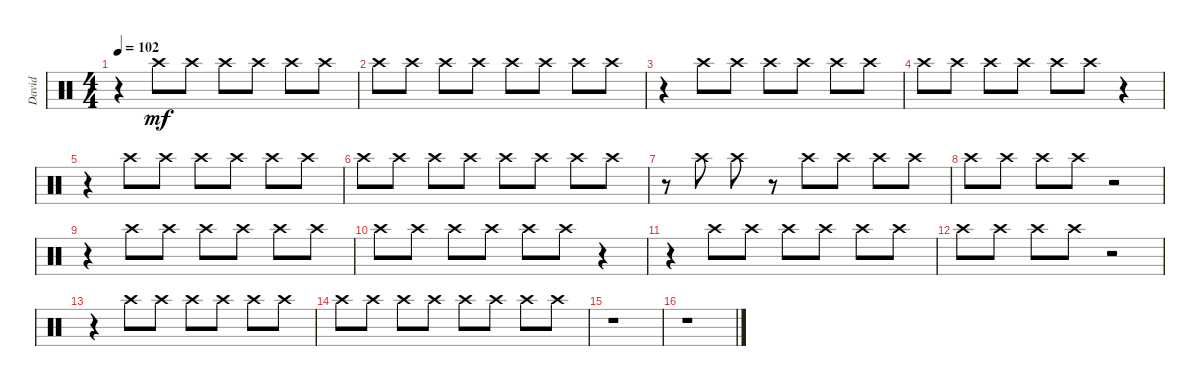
\track ("David" "David") {instrument percussion}
\staff {score}
\articulation defaults
\ts (4 4)
\tempo 102
\clef neutral
\ks c
r.4{dy f} "Crash high (hit)".8{dy mf} "Crash high (hit)".8 "Crash high (hit)".8 "Crash high (hit)".8 "Crash high (hit)".8 "Crash high (hit)".8 |
"Crash high (hit)".8 "Crash high (hit)".8 "Crash high (hit)".8 "Crash high (hit)".8 "Crash high (hit)".8 "Crash high (hit)".8 "Crash high (hit)".8 "Crash high (hit)".8 |
r.4 "Crash high (hit)".8 "Crash high (hit)".8 "Crash high (hit)".8 "Crash high (hit)".8 "Crash high (hit)".8 "Crash high (hit)".8 |
"Crash high (hit)".8 "Crash high (hit)".8 "Crash high (hit)".8 "Crash high (hit)".8 "Crash high (hit)".8 "Crash high (hit)".8 r.4 |
r.4 "Crash high (hit)".8 "Crash high (hit)".8 "Crash high (hit)".8 "Crash high (hit)".8 "Crash high (hit)".8 "Crash high (hit)".8 |
"Crash high (hit)".8 "Crash high (hit)".8 "Crash high (hit)".8 "Crash high (hit)".8 "Crash high (hit)".8 "Crash high (hit)".8 "Crash high (hit)".8 "Crash high (hit)".8 |
r.8 "Crash high (hit)".8 "Crash high (hit)".8 r.8 "Crash high (hit)".8 "Crash high (hit)".8 "Crash high (hit)".8 "Crash high (hit)".8 |
"Crash high (hit)".8 "Crash high (hit)".8 "Crash high (hit)".8 "Crash high (hit)".8 r.2 |
r.4 "Crash high (hit)".8 "Crash high (hit)".8 "Crash high (hit)".8 "Crash high (hit)".8 "Crash high (hit)".8 "Crash high (hit)".8 |
"Crash high (hit)".8 "Crash high (hit)".8 "Crash high (hit)".8 "Crash high (hit)".8 "Crash high (hit)".8 "Crash high (hit)".8 r.4 |
r.4 "Crash high (hit)".8 "Crash high (hit)".8 "Crash high (hit)".8 "Crash high (hit)".8 "Crash high (hit)".8 "Crash high (hit)".8 |
"Crash high (hit)".8 "Crash high (hit)".8 "Crash high (hit)".8 "Crash high (hit)".8 r.2 |
r.4 "Crash high (hit)".8 "Crash high (hit)".8 "Crash high (hit)".8 "Crash high (hit)".8 "Crash high (hit)".8 "Crash high (hit)".8 |
"Crash high (hit)".8 "Crash high (hit)".8 "Crash high (hit)".8 "Crash high (hit)".8 "Crash high (hit)".8 "Crash high (hit)".8 "Crash high (hit)".8 "Crash high (hit)".8 |
r.1 |
r.1
